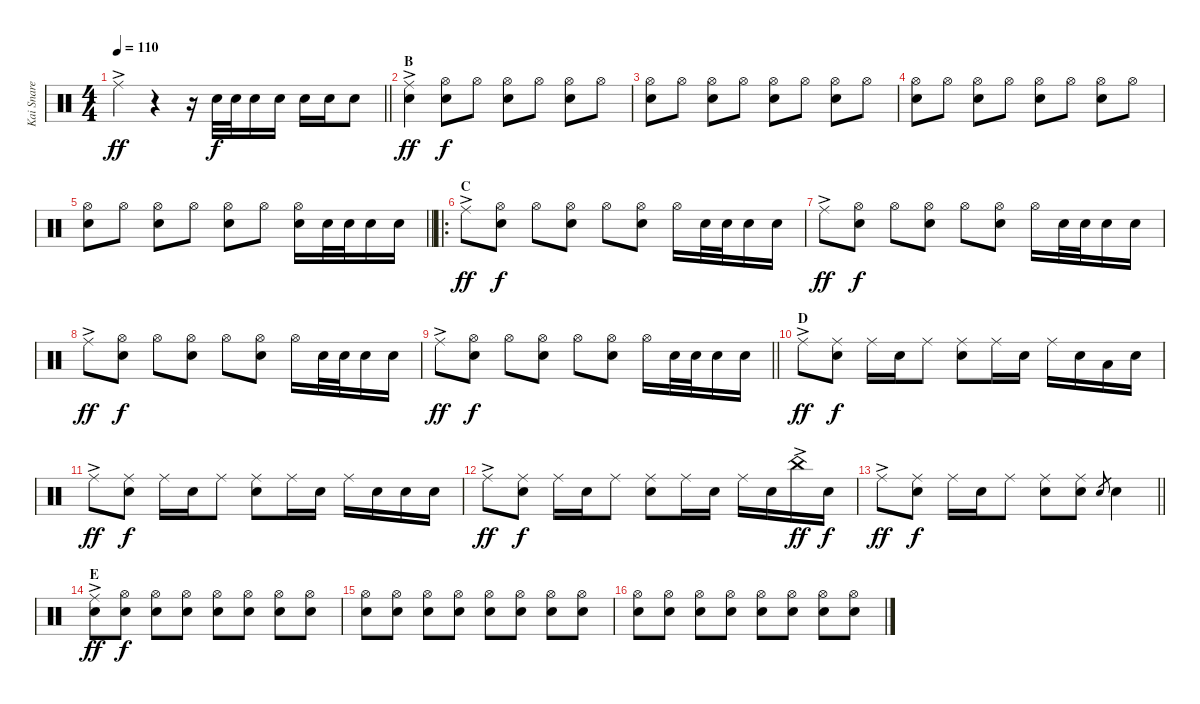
\track ("Kai Snare" "Kai Snare") {instrument percussion}
\staff {score}
\articulation defaults
\ts (4 4)
\tempo 110
\clef neutral
\barLineRight lightlight
\ks c "Ride (middle)"{ac}.4{dy ff}
r.4 r.16 "Snare (hit) 2".32{dy f} "Snare (hit) 2".32 "Snare (hit) 2".16 "Snare (hit) 2".16 "Snare (hit) 2".16 "Snare (hit) 2".16 "Snare (hit) 2".8 |
\section ("" "B")
("Ride (middle)"{ac} "Snare (hit) 2").4{dy ff} ("Hi-Hat (open)" "Snare (hit) 2").8{dy f} "Hi-Hat (open)".8 ("Hi-Hat (open)" "Snare (hit) 2").8 "Hi-Hat (open)".8 ("Hi-Hat (open)" "Snare (hit) 2").8 "Hi-Hat (open)".8 |
("Hi-Hat (open)" "Snare (hit) 2").8 "Hi-Hat (open)".8 ("Hi-Hat (open)" "Snare (hit) 2").8 "Hi-Hat (open)".8 ("Hi-Hat (open)" "Snare (hit) 2").8 "Hi-Hat (open)".8 ("Hi-Hat (open)" "Snare (hit) 2").8 "Hi-Hat (open)".8 |
("Hi-Hat (open)" "Snare (hit) 2").8 "Hi-Hat (open)".8 ("Hi-Hat (open)" "Snare (hit) 2").8 "Hi-Hat (open)".8 ("Hi-Hat (open)" "Snare (hit) 2").8 "Hi-Hat (open)".8 ("Hi-Hat (open)" "Snare (hit) 2").8 "Hi-Hat (open)".8 |
\barLineRight lightlight
("Hi-Hat (open)" "Snare (hit) 2").8 "Hi-Hat (open)".8 ("Hi-Hat (open)" "Snare (hit) 2").8 "Hi-Hat (open)".8 ("Hi-Hat (open)" "Snare (hit) 2").8 "Hi-Hat (open)".8 ("Hi-Hat (open)" "Snare (hit) 2").16 "Snare (hit) 2".32 "Snare (hit) 2".32 "Snare (hit) 2".16 "Snare (hit) 2".16 |
\ro
\section ("" "C")
"Ride (middle)"{ac}.8{dy ff} ("Hi-Hat (open)" "Snare (hit) 2").8{dy f} "Hi-Hat (open)".8 ("Hi-Hat (open)" "Snare (hit) 2").8 "Hi-Hat (open)".8 ("Hi-Hat (open)" "Snare (hit) 2").8 "Hi-Hat (open)".16 "Snare (hit) 2".32 "Snare (hit) 2".32 "Snare (hit) 2".16 "Snare (hit) 2".16 |
"Ride (middle)"{ac}.8{dy ff} ("Hi-Hat (open)" "Snare (hit) 2").8{dy f} "Hi-Hat (open)".8 ("Hi-Hat (open)" "Snare (hit) 2").8 "Hi-Hat (open)".8 ("Hi-Hat (open)" "Snare (hit) 2").8 "Hi-Hat (open)".16 "Snare (hit) 2".32 "Snare (hit) 2".32 "Snare (hit) 2".16 "Snare (hit) 2".16 |
"Ride (middle)"{ac}.8{dy ff} ("Hi-Hat (open)" "Snare (hit) 2").8{dy f} "Hi-Hat (open)".8 ("Hi-Hat (open)" "Snare (hit) 2").8 "Hi-Hat (open)".8 ("Hi-Hat (open)" "Snare (hit) 2").8 "Hi-Hat (open)".16 "Snare (hit) 2".32 "Snare (hit) 2".32 "Snare (hit) 2".16 "Snare (hit) 2".16 |
\barLineRight lightlight "Ride (middle)"{ac}.8{dy ff}
("Hi-Hat (open)" "Snare (hit) 2").8{dy f} "Hi-Hat (open)".8 ("Hi-Hat (open)" "Snare (hit) 2").8 "Hi-Hat (open)".8 ("Hi-Hat (open)" "Snare (hit) 2").8 "Hi-Hat (open)".16 "Snare (hit) 2".32 "Snare (hit) 2".32 "Snare (hit) 2".16 "Snare (hit) 2".16 |
\section ("" "D")
"Ride (middle)"{ac}.8{dy ff} ("Ride (middle)" "Snare (hit) 2").8{dy f} "Ride (middle)".16 "Snare (hit) 2".16 "Ride (middle)".8 ("Ride (middle)" "Snare (hit) 2").8 "Ride (middle)".16 "Snare (hit) 2".16 "Ride (middle)".16 "Snare (hit) 2".16 "Low Tom (hit)".16 "Snare (hit) 2".16 |
"Ride (middle)"{ac}.8{dy ff} ("Ride (middle)" "Snare (hit) 2").8{dy f} "Ride (middle)".16 "Snare (hit) 2".16 "Ride (middle)".8 ("Ride (middle)" "Snare (hit) 2").8 "Ride (middle)".16 "Snare (hit) 2".16 "Ride (middle)".16 "Snare (hit) 2".16 "Snare (hit) 2".16 "Snare (hit) 2".16 |
"Ride (middle)"{ac}.8{dy ff} ("Ride (middle)" "Snare (hit) 2").8{dy f} "Ride (middle)".16 "Snare (hit) 2".16 "Ride (middle)".8 ("Ride (middle)" "Snare (hit) 2").8 "Ride (middle)".16 "Snare (hit) 2".16 "Ride (middle)".16 "Snare (hit) 2".16 "China (hit)"{ac}.16{dy ff} "Snare (hit) 2".16{dy f} |
\barLineRight lightlight "Ride (middle)"{ac}.8{dy ff}
("Ride (middle)" "Snare (hit) 2").8{dy f} "Ride (middle)".16 "Snare (hit) 2".16 "Ride (middle)".8 ("Ride (middle)" "Snare (hit) 2").8 ("Ride (middle)" "Snare (hit) 2").8 "Snare (hit) 2".8{gr} "Snare (hit) 2".4 |
\section ("" "E")
("Ride (middle)"{ac} "Snare (hit) 2").8{dy ff} ("Hi-Hat (open)" "Snare (hit) 2").8{dy f} ("Hi-Hat (open)" "Snare (hit) 2").8 ("Hi-Hat (open)" "Snare (hit) 2").8 ("Hi-Hat (open)" "Snare (hit) 2").8 ("Hi-Hat (open)" "Snare (hit) 2").8 ("Hi-Hat (open)" "Snare (hit) 2").8 ("Hi-Hat (open)" "Snare (hit) 2").8 |
("Hi-Hat (open)" "Snare (hit) 2").8 ("Hi-Hat (open)" "Snare (hit) 2").8 ("Hi-Hat (open)" "Snare (hit) 2").8 ("Hi-Hat (open)" "Snare (hit) 2").8 ("Hi-Hat (open)" "Snare (hit) 2").8 ("Hi-Hat (open)" "Snare (hit) 2").8 ("Hi-Hat (open)" "Snare (hit) 2").8 ("Hi-Hat (open)" "Snare (hit) 2").8 |
("Hi-Hat (open)" "Snare (hit) 2").8 ("Hi-Hat (open)" "Snare (hit) 2").8 ("Hi-Hat (open)" "Snare (hit) 2").8 ("Hi-Hat (open)" "Snare (hit) 2").8 ("Hi-Hat (open)" "Snare (hit) 2").8 ("Hi-Hat (open)" "Snare (hit) 2").8 ("Hi-Hat (open)" "Snare (hit) 2").8 ("Hi-Hat (open)" "Snare (hit) 2").8
